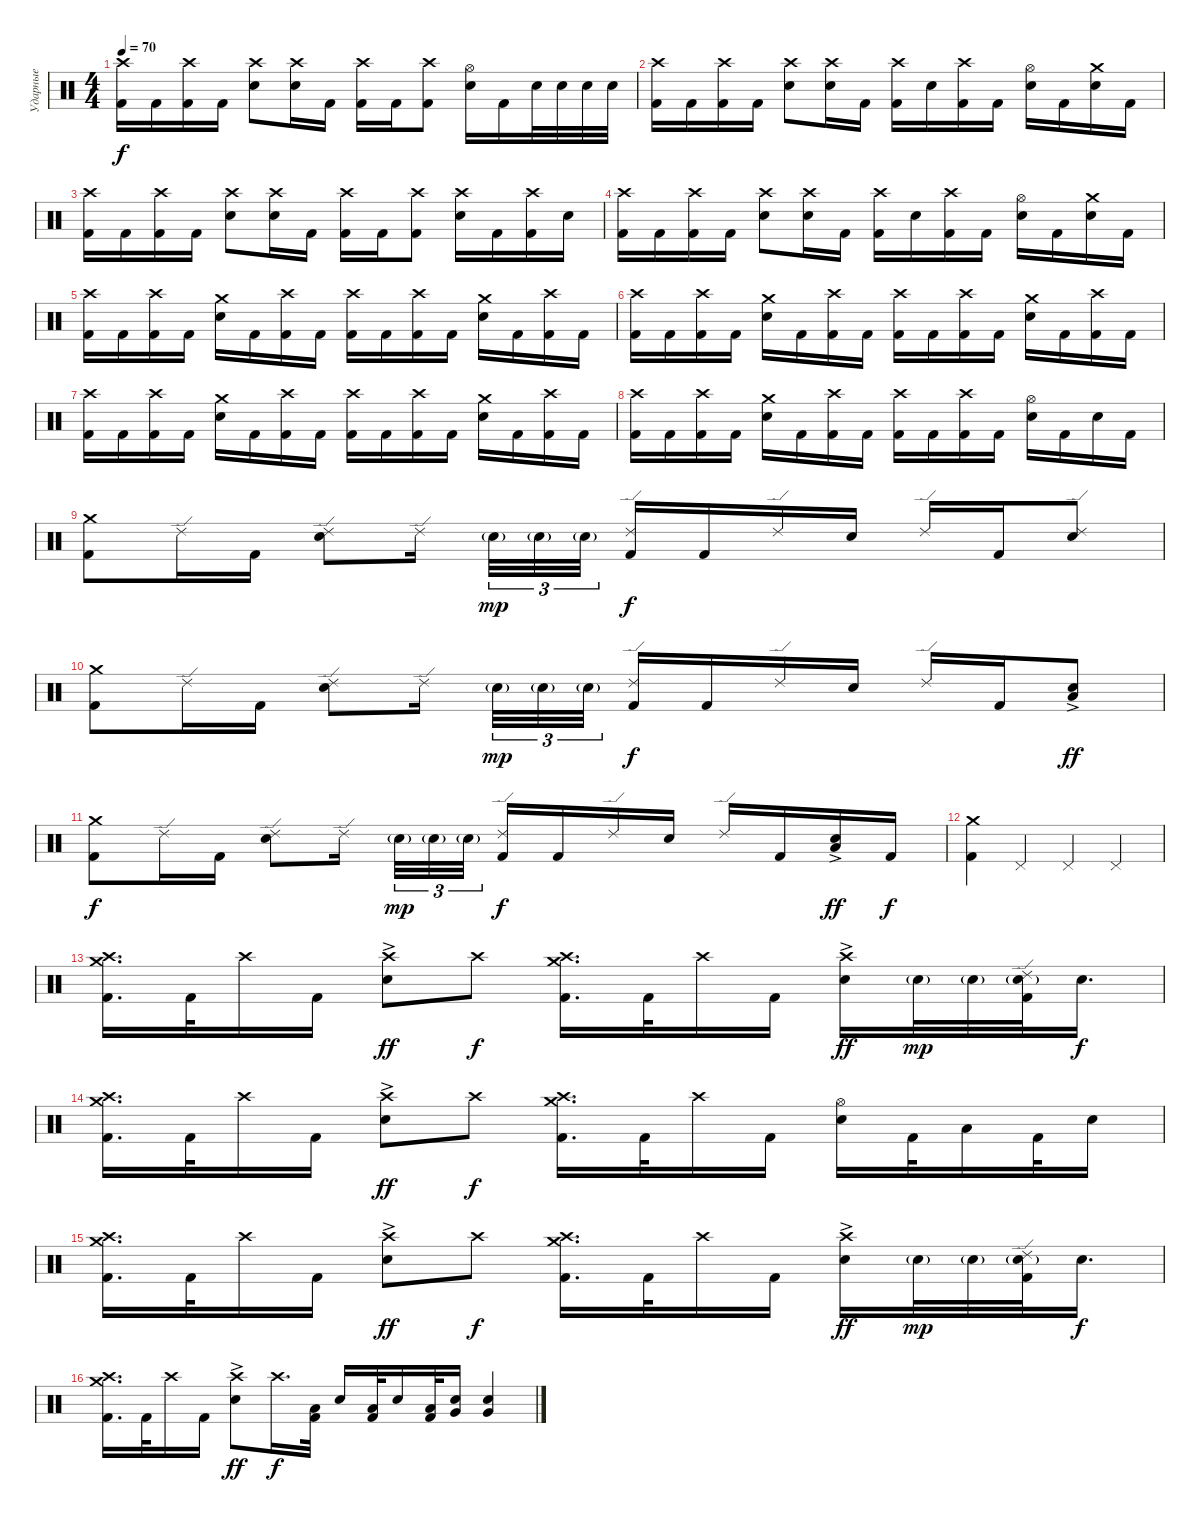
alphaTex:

\track ("Ударные" "Ударные") {instrument percussion}
\staff {score}
\articulation defaults
\ts (4 4)
\tempo 70
\clef neutral
\ks c
("Crash high (hit)" "Kick (hit) 2").16{dy f} "Kick (hit) 2".16 ("Crash high (hit)" "Kick (hit) 2").16 "Kick (hit) 2".16 ("Crash high (hit)" "Electric Snare (hit)").8 ("Crash high (hit)" "Electric Snare (hit)").16 "Kick (hit) 2".16 ("Crash high (hit)" "Kick (hit) 2").16 "Kick (hit) 2".16 ("Crash high (hit)" "Kick (hit) 2").8 ("Hi-Hat (open)" "Electric Snare (hit)").16 "Kick (hit) 2".16 "Electric Snare (hit)".32 "Electric Snare (hit)".32 "Electric Snare (hit)".32 "Electric Snare (hit)".32 |
("Crash high (hit)" "Kick (hit) 2").16 "Kick (hit) 2".16 ("Crash high (hit)" "Kick (hit) 2").16 "Kick (hit) 2".16 ("Crash high (hit)" "Electric Snare (hit)").8 ("Crash high (hit)" "Electric Snare (hit)").16 "Kick (hit) 2".16 ("Crash high (hit)" "Kick (hit) 2").16 "Electric Snare (hit)".16 ("Crash high (hit)" "Kick (hit) 2").16 "Kick (hit) 2".16 ("Hi-Hat (open)" "Electric Snare (hit)").16 "Kick (hit) 2".16 ("Crash medium (hit)" "Electric Snare (hit)").16 "Kick (hit) 2".16 |
("Crash high (hit)" "Kick (hit) 2").16 "Kick (hit) 2".16 ("Crash high (hit)" "Kick (hit) 2").16 "Kick (hit) 2".16 ("Crash high (hit)" "Electric Snare (hit)").8 ("Crash high (hit)" "Electric Snare (hit)").16 "Kick (hit) 2".16 ("Crash high (hit)" "Kick (hit) 2").16 "Kick (hit) 2".16 ("Crash high (hit)" "Kick (hit) 2").8 ("Crash high (hit)" "Electric Snare (hit)").16 "Kick (hit) 2".16 ("Crash high (hit)" "Kick (hit) 2").16 "Electric Snare (hit)".16 |
("Crash high (hit)" "Kick (hit) 2").16 "Kick (hit) 2".16 ("Crash high (hit)" "Kick (hit) 2").16 "Kick (hit) 2".16 ("Crash high (hit)" "Electric Snare (hit)").8 ("Crash high (hit)" "Electric Snare (hit)").16 "Kick (hit) 2".16 ("Crash high (hit)" "Kick (hit) 2").16 "Electric Snare (hit)".16 ("Crash high (hit)" "Kick (hit) 2").16 "Kick (hit) 2".16 ("Hi-Hat (open)" "Electric Snare (hit)").16 "Kick (hit) 2".16 ("Crash medium (hit)" "Electric Snare (hit)").16 "Kick (hit) 2".16 |
("Crash high (hit)" "Kick (hit) 2").16 "Kick (hit) 2".16 ("Crash high (hit)" "Kick (hit) 2").16 "Kick (hit) 2".16 ("Crash medium (hit)" "Electric Snare (hit)").16 "Kick (hit) 2".16 ("Crash high (hit)" "Kick (hit) 2").16 "Kick (hit) 2".16 ("Crash high (hit)" "Kick (hit) 2").16 "Kick (hit) 2".16 ("Crash high (hit)" "Kick (hit) 2").16 "Kick (hit) 2".16 ("Crash medium (hit)" "Electric Snare (hit)").16 "Kick (hit) 2".16 ("Crash high (hit)" "Kick (hit) 2").16 "Kick (hit) 2".16 |
("Crash high (hit)" "Kick (hit) 2").16 "Kick (hit) 2".16 ("Crash high (hit)" "Kick (hit) 2").16 "Kick (hit) 2".16 ("Crash medium (hit)" "Electric Snare (hit)").16 "Kick (hit) 2".16 ("Crash high (hit)" "Kick (hit) 2").16 "Kick (hit) 2".16 ("Crash high (hit)" "Kick (hit) 2").16 "Kick (hit) 2".16 ("Crash high (hit)" "Kick (hit) 2").16 "Kick (hit) 2".16 ("Crash medium (hit)" "Electric Snare (hit)").16 "Kick (hit) 2".16 ("Crash high (hit)" "Kick (hit) 2").16 "Kick (hit) 2".16 |
("Crash high (hit)" "Kick (hit) 2").16 "Kick (hit) 2".16 ("Crash high (hit)" "Kick (hit) 2").16 "Kick (hit) 2".16 ("Crash medium (hit)" "Electric Snare (hit)").16 "Kick (hit) 2".16 ("Crash high (hit)" "Kick (hit) 2").16 "Kick (hit) 2".16 ("Crash high (hit)" "Kick (hit) 2").16 "Kick (hit) 2".16 ("Crash high (hit)" "Kick (hit) 2").16 "Kick (hit) 2".16 ("Crash medium (hit)" "Electric Snare (hit)").16 "Kick (hit) 2".16 ("Crash high (hit)" "Kick (hit) 2").16 "Kick (hit) 2".16 |
("Crash high (hit)" "Kick (hit) 2").16 "Kick (hit) 2".16 ("Crash high (hit)" "Kick (hit) 2").16 "Kick (hit) 2".16 ("Crash medium (hit)" "Electric Snare (hit)").16 "Kick (hit) 2".16 ("Crash high (hit)" "Kick (hit) 2").16 "Kick (hit) 2".16 ("Crash high (hit)" "Kick (hit) 2").16 "Kick (hit) 2".16 ("Crash high (hit)" "Kick (hit) 2").16 "Kick (hit) 2".16 ("Hi-Hat (open)" "Electric Snare (hit)").16 "Kick (hit) 2".16 "Electric Snare (hit)".16 "Kick (hit) 2".16 |
("Crash medium (hit)" "Kick (hit) 2").8 "Ride (edge) 2".16 "Kick (hit) 2".16 ("Ride (edge) 2" "Electric Snare (hit)").8 "Ride (edge) 2".16{beam splitsecondary} "Electric Snare (hit)"{g}.32{tu (3 2) dy mp} "Electric Snare (hit)"{g}.32{tu (3 2)} "Electric Snare (hit)"{g}.32{tu (3 2)} ("Ride (edge) 2" "Kick (hit) 2").16{dy f} "Kick (hit) 2".16 "Ride (edge) 2".16 "Electric Snare (hit)".16 "Ride (edge) 2".16 "Kick (hit) 2".16 ("Ride (edge) 2" "Electric Snare (hit)").8 |
("Crash medium (hit)" "Kick (hit) 2").8 "Ride (edge) 2".16 "Kick (hit) 2".16 ("Ride (edge) 2" "Electric Snare (hit)").8 "Ride (edge) 2".16{beam splitsecondary} "Electric Snare (hit)"{g}.32{tu (3 2) dy mp} "Electric Snare (hit)"{g}.32{tu (3 2)} "Electric Snare (hit)"{g}.32{tu (3 2)} ("Ride (edge) 2" "Kick (hit) 2").16{dy f} "Kick (hit) 2".16 "Ride (edge) 2".16 "Electric Snare (hit)".16 "Ride (edge) 2".16 "Kick (hit) 2".16 ("Low Floor Tom (hit)"{ac} "Electric Snare (hit)").8{dy ff} |
("Crash medium (hit)" "Kick (hit) 2").8{dy f} "Ride (edge) 2".16 "Kick (hit) 2".16 ("Ride (edge) 2" "Electric Snare (hit)").8 "Ride (edge) 2".16{beam splitsecondary} "Electric Snare (hit)"{g}.32{tu (3 2) dy mp} "Electric Snare (hit)"{g}.32{tu (3 2)} "Electric Snare (hit)"{g}.32{tu (3 2)} ("Ride (edge) 2" "Kick (hit) 2").16{dy f} "Kick (hit) 2".16 "Ride (edge) 2".16 "Electric Snare (hit)".16 "Ride (edge) 2".16 "Kick (hit) 2".16 ("Low Floor Tom (hit)"{ac} "Electric Snare (hit)").16{dy ff} "Kick (hit) 2".16{dy f} |
("Crash medium (hit)" "Kick (hit) 2").4 "Pedal Hi-Hat (hit)".4 "Pedal Hi-Hat (hit)".4 "Pedal Hi-Hat (hit)".4 |
("Crash high (hit)" "Crash medium (hit)" "Kick (hit) 2").16{d} "Kick (hit) 2".32 "Crash high (hit)".16 "Kick (hit) 2".16 ("Crash high (hit)"{ac} "Electric Snare (hit)").8{dy ff} "Crash high (hit)".8{dy f} ("Crash high (hit)" "Crash medium (hit)" "Kick (hit) 2").16{d} "Kick (hit) 2".32 "Crash high (hit)".16 "Kick (hit) 2".16 ("Crash high (hit)"{ac} "Electric Snare (hit)").16{dy ff} "Electric Snare (hit)"{g}.32{dy mp} "Electric Snare (hit)"{g}.32 ("Ride (edge) 2" "Electric Snare (hit)"{g} "Kick (hit) 2").32 "Electric Snare (hit)".16{d dy f} |
("Crash high (hit)" "Crash medium (hit)" "Kick (hit) 2").16{d} "Kick (hit) 2".32 "Crash high (hit)".16 "Kick (hit) 2".16 ("Crash high (hit)"{ac} "Electric Snare (hit)").8{dy ff} "Crash high (hit)".8{dy f} ("Crash high (hit)" "Crash medium (hit)" "Kick (hit) 2").16{d} "Kick (hit) 2".32 "Crash high (hit)".16 "Kick (hit) 2".16 ("Hi-Hat (open)" "Electric Snare (hit)").16 "Kick (hit) 2".32 "Low Floor Tom (hit)".16 "Kick (hit) 2".32 "Electric Snare (hit)".16 |
("Crash high (hit)" "Crash medium (hit)" "Kick (hit) 2").16{d} "Kick (hit) 2".32 "Crash high (hit)".16 "Kick (hit) 2".16 ("Crash high (hit)"{ac} "Electric Snare (hit)").8{dy ff} "Crash high (hit)".8{dy f} ("Crash high (hit)" "Crash medium (hit)" "Kick (hit) 2").16{d} "Kick (hit) 2".32 "Crash high (hit)".16 "Kick (hit) 2".16 ("Crash high (hit)"{ac} "Electric Snare (hit)").16{dy ff} "Electric Snare (hit)"{g}.32{dy mp} "Electric Snare (hit)"{g}.32 ("Ride (edge) 2" "Electric Snare (hit)"{g} "Kick (hit) 2").32 "Electric Snare (hit)".16{d dy f} |
("Crash high (hit)" "Crash medium (hit)" "Kick (hit) 2").16{d} "Kick (hit) 2".32 "Crash high (hit)".16 "Kick (hit) 2".16 ("Crash high (hit)"{ac} "Electric Snare (hit)").8{dy ff} "Crash high (hit)".16{d dy f} ("Low Floor Tom (hit)" "Kick (hit) 2").32 "Electric Snare (hit)".16 ("Low Floor Tom (hit)" "Kick (hit) 2").32 "Electric Snare (hit)".16 ("Low Floor Tom (hit)" "Kick (hit) 2").32 ("Very Low Tom (hit)" "Electric Snare (hit)").16 ("Very Low Tom (hit)" "Electric Snare (hit)").4
